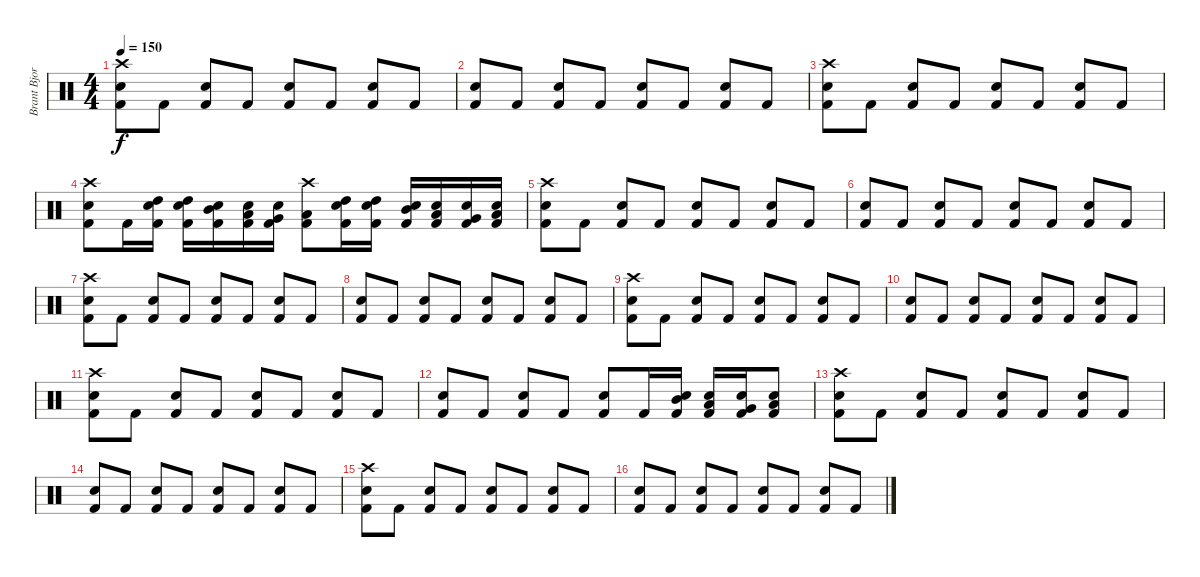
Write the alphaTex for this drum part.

\track ("Brant Bjork" "Brant Bjor") {instrument percussion}
\staff {score}
\articulation defaults
\ts (4 4)
\tempo 150
\clef neutral
\ks c
("Crash high (hit)" "Electric Snare (hit)" "Kick (hit) 2").8{dy f} "Kick (hit) 2".8 ("Electric Snare (hit)" "Kick (hit) 2").8 "Kick (hit) 2".8 ("Electric Snare (hit)" "Kick (hit) 2").8 "Kick (hit) 2".8 ("Electric Snare (hit)" "Kick (hit) 2").8 "Kick (hit) 2".8 |
("Electric Snare (hit)" "Kick (hit) 2").8 "Kick (hit) 2".8 ("Electric Snare (hit)" "Kick (hit) 2").8 "Kick (hit) 2".8 ("Electric Snare (hit)" "Kick (hit) 2").8 "Kick (hit) 2".8 ("Electric Snare (hit)" "Kick (hit) 2").8 "Kick (hit) 2".8 |
("Crash high (hit)" "Electric Snare (hit)" "Kick (hit) 2").8 "Kick (hit) 2".8 ("Electric Snare (hit)" "Kick (hit) 2").8 "Kick (hit) 2".8 ("Electric Snare (hit)" "Kick (hit) 2").8 "Kick (hit) 2".8 ("Electric Snare (hit)" "Kick (hit) 2").8 "Kick (hit) 2".8 |
("Crash high (hit)" "Electric Snare (hit)" "Kick (hit) 2").8 "Kick (hit) 2".16 ("Electric Snare (hit)" "High Tom (hit)" "Kick (hit) 2").16 ("Electric Snare (hit)" "High Tom (hit)" "Kick (hit) 2").16 ("Electric Snare (hit)" "Mid Tom (hit)" "Kick (hit) 2").16 ("Electric Snare (hit)" "Low Tom (hit)" "Kick (hit) 2").16 ("Electric Snare (hit)" "Very Low Tom (hit)" "Kick (hit) 2").16 ("Crash high (hit)" "Low Floor Tom (hit)" "Kick (hit) 2").8 ("Electric Snare (hit)" "High Tom (hit)" "Kick (hit) 2").16 ("Electric Snare (hit)" "High Tom (hit)" "Kick (hit) 2").16 ("Electric Snare (hit)" "Mid Tom (hit)" "Kick (hit) 2").16 ("Electric Snare (hit)" "Low Tom (hit)" "Kick (hit) 2").16 ("Electric Snare (hit)" "Very Low Tom (hit)" "Kick (hit) 2").16 ("Electric Snare (hit)" "Low Floor Tom (hit)" "Kick (hit) 2").16 |
("Crash high (hit)" "Electric Snare (hit)" "Kick (hit) 2").8 "Kick (hit) 2".8 ("Electric Snare (hit)" "Kick (hit) 2").8 "Kick (hit) 2".8 ("Electric Snare (hit)" "Kick (hit) 2").8 "Kick (hit) 2".8 ("Electric Snare (hit)" "Kick (hit) 2").8 "Kick (hit) 2".8 |
("Electric Snare (hit)" "Kick (hit) 2").8 "Kick (hit) 2".8 ("Electric Snare (hit)" "Kick (hit) 2").8 "Kick (hit) 2".8 ("Electric Snare (hit)" "Kick (hit) 2").8 "Kick (hit) 2".8 ("Electric Snare (hit)" "Kick (hit) 2").8 "Kick (hit) 2".8 |
("Crash high (hit)" "Electric Snare (hit)" "Kick (hit) 2").8 "Kick (hit) 2".8 ("Electric Snare (hit)" "Kick (hit) 2").8 "Kick (hit) 2".8 ("Electric Snare (hit)" "Kick (hit) 2").8 "Kick (hit) 2".8 ("Electric Snare (hit)" "Kick (hit) 2").8 "Kick (hit) 2".8 |
("Electric Snare (hit)" "Kick (hit) 2").8 "Kick (hit) 2".8 ("Electric Snare (hit)" "Kick (hit) 2").8 "Kick (hit) 2".8 ("Electric Snare (hit)" "Kick (hit) 2").8 "Kick (hit) 2".8 ("Electric Snare (hit)" "Kick (hit) 2").8 "Kick (hit) 2".8 |
("Crash high (hit)" "Electric Snare (hit)" "Kick (hit) 2").8 "Kick (hit) 2".8 ("Electric Snare (hit)" "Kick (hit) 2").8 "Kick (hit) 2".8 ("Electric Snare (hit)" "Kick (hit) 2").8 "Kick (hit) 2".8 ("Electric Snare (hit)" "Kick (hit) 2").8 "Kick (hit) 2".8 |
("Electric Snare (hit)" "Kick (hit) 2").8 "Kick (hit) 2".8 ("Electric Snare (hit)" "Kick (hit) 2").8 "Kick (hit) 2".8 ("Electric Snare (hit)" "Kick (hit) 2").8 "Kick (hit) 2".8 ("Electric Snare (hit)" "Kick (hit) 2").8 "Kick (hit) 2".8 |
("Crash high (hit)" "Electric Snare (hit)" "Kick (hit) 2").8 "Kick (hit) 2".8 ("Electric Snare (hit)" "Kick (hit) 2").8 "Kick (hit) 2".8 ("Electric Snare (hit)" "Kick (hit) 2").8 "Kick (hit) 2".8 ("Electric Snare (hit)" "Kick (hit) 2").8 "Kick (hit) 2".8 |
("Electric Snare (hit)" "Kick (hit) 2").8 "Kick (hit) 2".8 ("Electric Snare (hit)" "Kick (hit) 2").8 "Kick (hit) 2".8 ("Electric Snare (hit)" "Kick (hit) 2").8 "Kick (hit) 2".16 ("Electric Snare (hit)" "Mid Tom (hit)" "Kick (hit) 2").16 ("Electric Snare (hit)" "Low Tom (hit)" "Kick (hit) 2").16 ("Electric Snare (hit)" "Very Low Tom (hit)" "Kick (hit) 2").16 ("Electric Snare (hit)" "Low Floor Tom (hit)" "Kick (hit) 2").8 |
("Crash high (hit)" "Electric Snare (hit)" "Kick (hit) 2").8 "Kick (hit) 2".8 ("Electric Snare (hit)" "Kick (hit) 2").8 "Kick (hit) 2".8 ("Electric Snare (hit)" "Kick (hit) 2").8 "Kick (hit) 2".8 ("Electric Snare (hit)" "Kick (hit) 2").8 "Kick (hit) 2".8 |
("Electric Snare (hit)" "Kick (hit) 2").8 "Kick (hit) 2".8 ("Electric Snare (hit)" "Kick (hit) 2").8 "Kick (hit) 2".8 ("Electric Snare (hit)" "Kick (hit) 2").8 "Kick (hit) 2".8 ("Electric Snare (hit)" "Kick (hit) 2").8 "Kick (hit) 2".8 |
("Crash high (hit)" "Electric Snare (hit)" "Kick (hit) 2").8 "Kick (hit) 2".8 ("Electric Snare (hit)" "Kick (hit) 2").8 "Kick (hit) 2".8 ("Electric Snare (hit)" "Kick (hit) 2").8 "Kick (hit) 2".8 ("Electric Snare (hit)" "Kick (hit) 2").8 "Kick (hit) 2".8 |
("Electric Snare (hit)" "Kick (hit) 2").8 "Kick (hit) 2".8 ("Electric Snare (hit)" "Kick (hit) 2").8 "Kick (hit) 2".8 ("Electric Snare (hit)" "Kick (hit) 2").8 "Kick (hit) 2".8 ("Electric Snare (hit)" "Kick (hit) 2").8 "Kick (hit) 2".8
